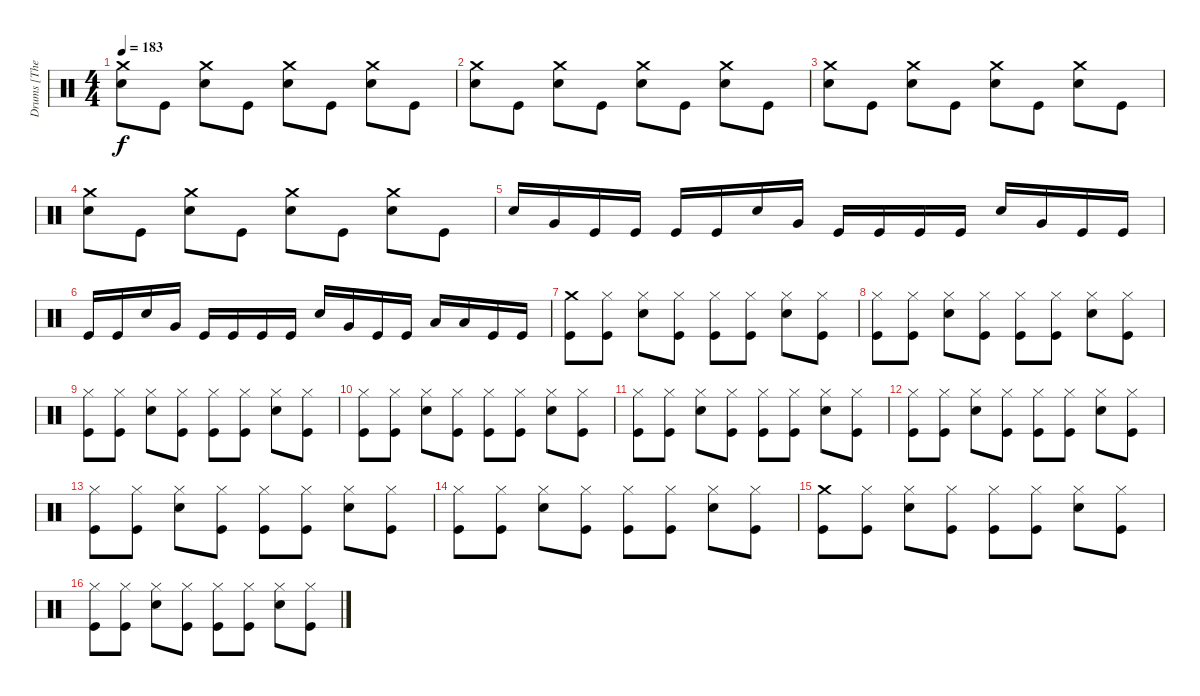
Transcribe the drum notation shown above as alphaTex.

\track ("Drums [The Rev]" "Drums [The") {instrument percussion}
\staff {score}
\articulation defaults
\ts (4 4)
\tempo 183
\clef neutral
\ks c
("Crash medium (hit)" "Snare (hit) 2").8{dy f} "Kick (hit)".8 ("Crash medium (hit)" "Snare (hit) 2").8 "Kick (hit)".8 ("Crash medium (hit)" "Snare (hit) 2").8 "Kick (hit)".8 ("Crash medium (hit)" "Snare (hit) 2").8 "Kick (hit)".8 |
("Crash medium (hit)" "Snare (hit) 2").8 "Kick (hit)".8 ("Crash medium (hit)" "Snare (hit) 2").8 "Kick (hit)".8 ("Crash medium (hit)" "Snare (hit) 2").8 "Kick (hit)".8 ("Crash medium (hit)" "Snare (hit) 2").8 "Kick (hit)".8 |
("Crash medium (hit)" "Snare (hit) 2").8 "Kick (hit)".8 ("Crash medium (hit)" "Snare (hit) 2").8 "Kick (hit)".8 ("Crash medium (hit)" "Snare (hit) 2").8 "Kick (hit)".8 ("Crash medium (hit)" "Snare (hit) 2").8 "Kick (hit)".8 |
("Crash medium (hit)" "Snare (hit) 2").8 "Kick (hit)".8 ("Crash medium (hit)" "Snare (hit) 2").8 "Kick (hit)".8 ("Crash medium (hit)" "Snare (hit) 2").8 "Kick (hit)".8 ("Crash medium (hit)" "Snare (hit) 2").8 "Kick (hit)".8 |
"Snare (hit) 2".16 "Very Low Tom (hit)".16 "Kick (hit)".16 "Kick (hit)".16 "Kick (hit)".16 "Kick (hit)".16 "Snare (hit) 2".16 "Very Low Tom (hit)".16 "Kick (hit)".16 "Kick (hit)".16 "Kick (hit)".16 "Kick (hit)".16 "Snare (hit) 2".16 "Very Low Tom (hit)".16 "Kick (hit)".16 "Kick (hit)".16 |
"Kick (hit)".16 "Kick (hit)".16 "Snare (hit) 2".16 "Very Low Tom (hit)".16 "Kick (hit)".16 "Kick (hit)".16 "Kick (hit)".16 "Kick (hit)".16 "Snare (hit) 2".16 "Very Low Tom (hit)".16 "Kick (hit)".16 "Kick (hit)".16 "Low Floor Tom (hit)".16 "Low Floor Tom (hit)".16 "Kick (hit)".16 "Kick (hit)".16 |
("Crash medium (hit)" "Kick (hit)").8 ("Hi-Hat (closed)" "Kick (hit)").8 ("Hi-Hat (closed)" "Snare (hit) 2").8 ("Hi-Hat (closed)" "Kick (hit)").8 ("Hi-Hat (closed)" "Kick (hit)").8 ("Hi-Hat (closed)" "Kick (hit)").8 ("Hi-Hat (closed)" "Snare (hit) 2").8 ("Hi-Hat (closed)" "Kick (hit)").8 |
("Hi-Hat (closed)" "Kick (hit)").8 ("Hi-Hat (closed)" "Kick (hit)").8 ("Hi-Hat (closed)" "Snare (hit) 2").8 ("Hi-Hat (closed)" "Kick (hit)").8 ("Hi-Hat (closed)" "Kick (hit)").8 ("Hi-Hat (closed)" "Kick (hit)").8 ("Hi-Hat (closed)" "Snare (hit) 2").8 ("Hi-Hat (closed)" "Kick (hit)").8 |
("Hi-Hat (closed)" "Kick (hit)").8 ("Hi-Hat (closed)" "Kick (hit)").8 ("Hi-Hat (closed)" "Snare (hit) 2").8 ("Hi-Hat (closed)" "Kick (hit)").8 ("Hi-Hat (closed)" "Kick (hit)").8 ("Hi-Hat (closed)" "Kick (hit)").8 ("Hi-Hat (closed)" "Snare (hit) 2").8 ("Hi-Hat (closed)" "Kick (hit)").8 |
("Hi-Hat (closed)" "Kick (hit)").8 ("Hi-Hat (closed)" "Kick (hit)").8 ("Hi-Hat (closed)" "Snare (hit) 2").8 ("Hi-Hat (closed)" "Kick (hit)").8 ("Hi-Hat (closed)" "Kick (hit)").8 ("Hi-Hat (closed)" "Kick (hit)").8 ("Hi-Hat (closed)" "Snare (hit) 2").8 ("Hi-Hat (closed)" "Kick (hit)").8 |
("Hi-Hat (closed)" "Kick (hit)").8 ("Hi-Hat (closed)" "Kick (hit)").8 ("Hi-Hat (closed)" "Snare (hit) 2").8 ("Hi-Hat (closed)" "Kick (hit)").8 ("Hi-Hat (closed)" "Kick (hit)").8 ("Hi-Hat (closed)" "Kick (hit)").8 ("Hi-Hat (closed)" "Snare (hit) 2").8 ("Hi-Hat (closed)" "Kick (hit)").8 |
("Hi-Hat (closed)" "Kick (hit)").8 ("Hi-Hat (closed)" "Kick (hit)").8 ("Hi-Hat (closed)" "Snare (hit) 2").8 ("Hi-Hat (closed)" "Kick (hit)").8 ("Hi-Hat (closed)" "Kick (hit)").8 ("Hi-Hat (closed)" "Kick (hit)").8 ("Hi-Hat (closed)" "Snare (hit) 2").8 ("Hi-Hat (closed)" "Kick (hit)").8 |
("Hi-Hat (closed)" "Kick (hit)").8 ("Hi-Hat (closed)" "Kick (hit)").8 ("Hi-Hat (closed)" "Snare (hit) 2").8 ("Hi-Hat (closed)" "Kick (hit)").8 ("Hi-Hat (closed)" "Kick (hit)").8 ("Hi-Hat (closed)" "Kick (hit)").8 ("Hi-Hat (closed)" "Snare (hit) 2").8 ("Hi-Hat (closed)" "Kick (hit)").8 |
("Hi-Hat (closed)" "Kick (hit)").8 ("Hi-Hat (closed)" "Kick (hit)").8 ("Hi-Hat (closed)" "Snare (hit) 2").8 ("Hi-Hat (closed)" "Kick (hit)").8 ("Hi-Hat (closed)" "Kick (hit)").8 ("Hi-Hat (closed)" "Kick (hit)").8 ("Hi-Hat (closed)" "Snare (hit) 2").8 ("Hi-Hat (closed)" "Kick (hit)").8 |
("Crash medium (hit)" "Kick (hit)").8 ("Hi-Hat (closed)" "Kick (hit)").8 ("Hi-Hat (closed)" "Snare (hit) 2").8 ("Hi-Hat (closed)" "Kick (hit)").8 ("Hi-Hat (closed)" "Kick (hit)").8 ("Hi-Hat (closed)" "Kick (hit)").8 ("Hi-Hat (closed)" "Snare (hit) 2").8 ("Hi-Hat (closed)" "Kick (hit)").8 |
("Hi-Hat (closed)" "Kick (hit)").8 ("Hi-Hat (closed)" "Kick (hit)").8 ("Hi-Hat (closed)" "Snare (hit) 2").8 ("Hi-Hat (closed)" "Kick (hit)").8 ("Hi-Hat (closed)" "Kick (hit)").8 ("Hi-Hat (closed)" "Kick (hit)").8 ("Hi-Hat (closed)" "Snare (hit) 2").8 ("Hi-Hat (closed)" "Kick (hit)").8
